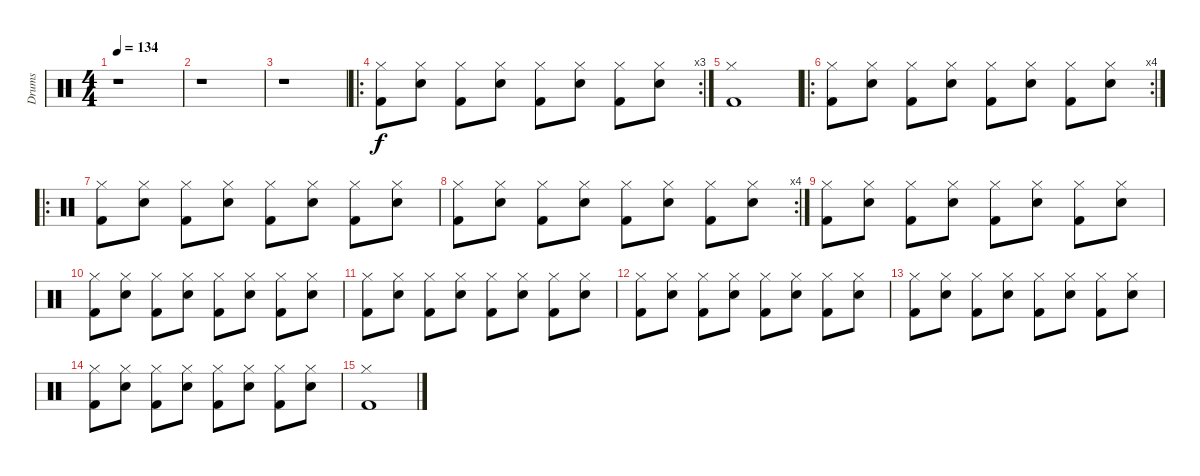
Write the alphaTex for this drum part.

\track ("Drums" "Drums") {instrument percussion}
\staff {score}
\articulation defaults
\ts (4 4)
\tempo 134
\clef neutral
\ks c
r.1{dy f} |
r.1 |
r.1 |
\ro
\rc 3
("Hi-Hat (closed)" "Kick (hit) 2").8 ("Hi-Hat (closed)" "Electric Snare (hit)").8 ("Hi-Hat (closed)" "Kick (hit) 2").8 ("Hi-Hat (closed)" "Electric Snare (hit)").8 ("Hi-Hat (closed)" "Kick (hit) 2").8 ("Hi-Hat (closed)" "Electric Snare (hit)").8 ("Hi-Hat (closed)" "Kick (hit) 2").8 ("Hi-Hat (closed)" "Electric Snare (hit)").8 |
("Hi-Hat (closed)" "Kick (hit) 2").1 |
\ro
\rc 4
("Hi-Hat (closed)" "Kick (hit) 2").8 ("Hi-Hat (closed)" "Electric Snare (hit)").8 ("Hi-Hat (closed)" "Kick (hit) 2").8 ("Hi-Hat (closed)" "Electric Snare (hit)").8 ("Hi-Hat (closed)" "Kick (hit) 2").8 ("Hi-Hat (closed)" "Electric Snare (hit)").8 ("Hi-Hat (closed)" "Kick (hit) 2").8 ("Hi-Hat (closed)" "Electric Snare (hit)").8 |
\ro
("Hi-Hat (closed)" "Kick (hit) 2").8 ("Hi-Hat (closed)" "Electric Snare (hit)").8 ("Hi-Hat (closed)" "Kick (hit) 2").8 ("Hi-Hat (closed)" "Electric Snare (hit)").8 ("Hi-Hat (closed)" "Kick (hit) 2").8 ("Hi-Hat (closed)" "Electric Snare (hit)").8 ("Hi-Hat (closed)" "Kick (hit) 2").8 ("Hi-Hat (closed)" "Electric Snare (hit)").8 |
\rc 4
("Hi-Hat (closed)" "Kick (hit) 2").8 ("Hi-Hat (closed)" "Electric Snare (hit)").8 ("Hi-Hat (closed)" "Kick (hit) 2").8 ("Hi-Hat (closed)" "Electric Snare (hit)").8 ("Hi-Hat (closed)" "Kick (hit) 2").8 ("Hi-Hat (closed)" "Electric Snare (hit)").8 ("Hi-Hat (closed)" "Kick (hit) 2").8 ("Hi-Hat (closed)" "Electric Snare (hit)").8 |
("Hi-Hat (closed)" "Kick (hit) 2").8 ("Hi-Hat (closed)" "Electric Snare (hit)").8 ("Hi-Hat (closed)" "Kick (hit) 2").8 ("Hi-Hat (closed)" "Electric Snare (hit)").8 ("Hi-Hat (closed)" "Kick (hit) 2").8 ("Hi-Hat (closed)" "Electric Snare (hit)").8 ("Hi-Hat (closed)" "Kick (hit) 2").8 ("Hi-Hat (closed)" "Electric Snare (hit)").8 |
("Hi-Hat (closed)" "Kick (hit) 2").8 ("Hi-Hat (closed)" "Electric Snare (hit)").8 ("Hi-Hat (closed)" "Kick (hit) 2").8 ("Hi-Hat (closed)" "Electric Snare (hit)").8 ("Hi-Hat (closed)" "Kick (hit) 2").8 ("Hi-Hat (closed)" "Electric Snare (hit)").8 ("Hi-Hat (closed)" "Kick (hit) 2").8 ("Hi-Hat (closed)" "Electric Snare (hit)").8 |
("Hi-Hat (closed)" "Kick (hit) 2").8 ("Hi-Hat (closed)" "Electric Snare (hit)").8 ("Hi-Hat (closed)" "Kick (hit) 2").8 ("Hi-Hat (closed)" "Electric Snare (hit)").8 ("Hi-Hat (closed)" "Kick (hit) 2").8 ("Hi-Hat (closed)" "Electric Snare (hit)").8 ("Hi-Hat (closed)" "Kick (hit) 2").8 ("Hi-Hat (closed)" "Electric Snare (hit)").8 |
("Hi-Hat (closed)" "Kick (hit) 2").8 ("Hi-Hat (closed)" "Electric Snare (hit)").8 ("Hi-Hat (closed)" "Kick (hit) 2").8 ("Hi-Hat (closed)" "Electric Snare (hit)").8 ("Hi-Hat (closed)" "Kick (hit) 2").8 ("Hi-Hat (closed)" "Electric Snare (hit)").8 ("Hi-Hat (closed)" "Kick (hit) 2").8 ("Hi-Hat (closed)" "Electric Snare (hit)").8 |
("Hi-Hat (closed)" "Kick (hit) 2").8 ("Hi-Hat (closed)" "Electric Snare (hit)").8 ("Hi-Hat (closed)" "Kick (hit) 2").8 ("Hi-Hat (closed)" "Electric Snare (hit)").8 ("Hi-Hat (closed)" "Kick (hit) 2").8 ("Hi-Hat (closed)" "Electric Snare (hit)").8 ("Hi-Hat (closed)" "Kick (hit) 2").8 ("Hi-Hat (closed)" "Electric Snare (hit)").8 |
("Hi-Hat (closed)" "Kick (hit) 2").8 ("Hi-Hat (closed)" "Electric Snare (hit)").8 ("Hi-Hat (closed)" "Kick (hit) 2").8 ("Hi-Hat (closed)" "Electric Snare (hit)").8 ("Hi-Hat (closed)" "Kick (hit) 2").8 ("Hi-Hat (closed)" "Electric Snare (hit)").8 ("Hi-Hat (closed)" "Kick (hit) 2").8 ("Hi-Hat (closed)" "Electric Snare (hit)").8 |
("Hi-Hat (closed)" "Kick (hit) 2").1
